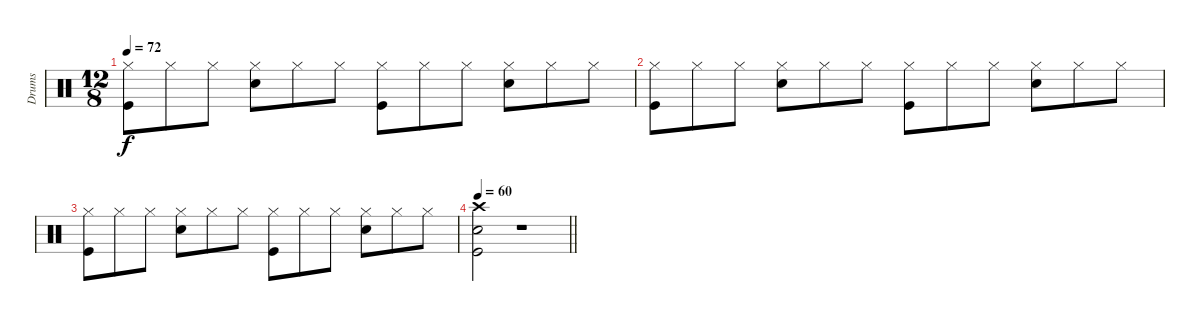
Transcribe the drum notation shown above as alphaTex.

\track ("Drums" "Drums") {instrument percussion}
\staff {score}
\articulation defaults
\ts (12 8)
\tempo 72
\clef neutral
\ks c
("Hi-Hat (closed)" "Kick (hit)").8{dy f} "Hi-Hat (closed)".8 "Hi-Hat (closed)".8 ("Hi-Hat (closed)" "Snare (hit) 2").8 "Hi-Hat (closed)".8 "Hi-Hat (closed)".8 ("Hi-Hat (closed)" "Kick (hit)").8 "Hi-Hat (closed)".8 "Hi-Hat (closed)".8 ("Hi-Hat (closed)" "Snare (hit) 2").8 "Hi-Hat (closed)".8 "Hi-Hat (closed)".8 |
("Hi-Hat (closed)" "Kick (hit)").8 "Hi-Hat (closed)".8 "Hi-Hat (closed)".8 ("Hi-Hat (closed)" "Snare (hit) 2").8 "Hi-Hat (closed)".8 "Hi-Hat (closed)".8 ("Hi-Hat (closed)" "Kick (hit)").8 "Hi-Hat (closed)".8 "Hi-Hat (closed)".8 ("Hi-Hat (closed)" "Snare (hit) 2").8 "Hi-Hat (closed)".8 "Hi-Hat (closed)".8 |
("Hi-Hat (closed)" "Kick (hit)").8 "Hi-Hat (closed)".8 "Hi-Hat (closed)".8 ("Hi-Hat (closed)" "Snare (hit) 2").8 "Hi-Hat (closed)".8 "Hi-Hat (closed)".8 ("Hi-Hat (closed)" "Kick (hit)").8 "Hi-Hat (closed)".8 "Hi-Hat (closed)".8 ("Hi-Hat (closed)" "Snare (hit) 2").8 "Hi-Hat (closed)".8 "Hi-Hat (closed)".8 |
\tempo 60
\barLineRight lightlight
("Crash high (hit)" "Kick (hit)" "Snare (hit) 2").2 r.1
